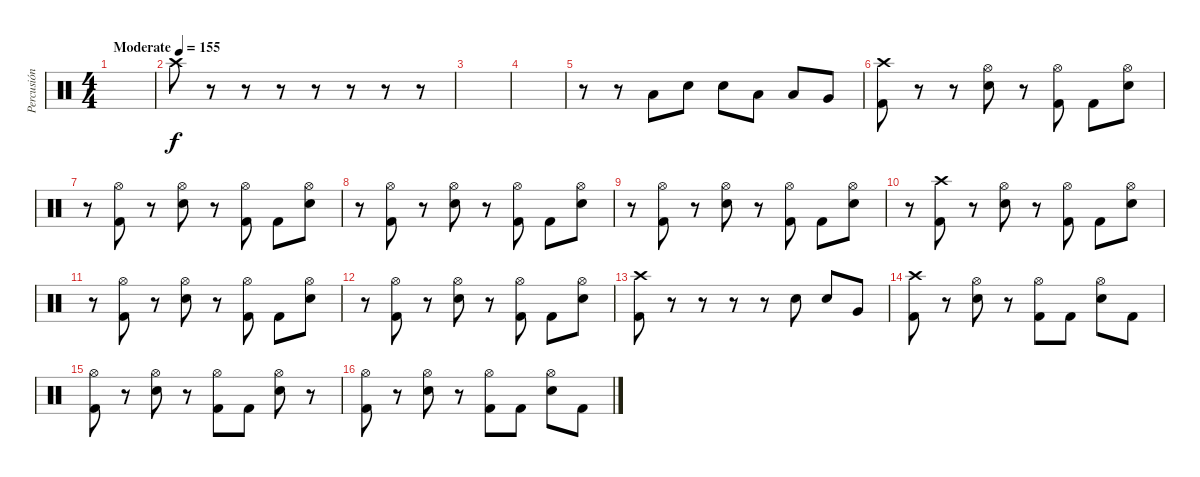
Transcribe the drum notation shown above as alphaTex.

\track ("Percusión" "Percusión") {instrument percussion}
\staff {score}
\articulation defaults
\ts (4 4)
\tempo (155 "Moderate")
\clef neutral
\ks c
|
"Crash high (hit)".8 r.8 r.8 r.8 r.8 r.8 r.8 r.8 |
|
|
r.8 r.8 "Low Tom (hit)".8 "Electric Snare (hit)".8 "Electric Snare (hit)".8 "Low Tom (hit)".8 "Low Tom (hit)".8 "Very Low Tom (hit)".8 |
("Crash high (hit)" "Kick (hit) 2").8 r.8 r.8 ("Hi-Hat (open)" "Electric Snare (hit)").8 r.8 ("Hi-Hat (open)" "Kick (hit) 2").8 "Kick (hit) 2".8 ("Hi-Hat (open)" "Electric Snare (hit)").8 |
r.8 ("Hi-Hat (open)" "Kick (hit) 2").8 r.8 ("Hi-Hat (open)" "Electric Snare (hit)").8 r.8 ("Hi-Hat (open)" "Kick (hit) 2").8 "Kick (hit) 2".8 ("Hi-Hat (open)" "Electric Snare (hit)").8 |
r.8 ("Hi-Hat (open)" "Kick (hit) 2").8 r.8 ("Hi-Hat (open)" "Electric Snare (hit)").8 r.8 ("Hi-Hat (open)" "Kick (hit) 2").8 "Kick (hit) 2".8 ("Hi-Hat (open)" "Electric Snare (hit)").8 |
r.8 ("Hi-Hat (open)" "Kick (hit) 2").8 r.8 ("Hi-Hat (open)" "Electric Snare (hit)").8 r.8 ("Hi-Hat (open)" "Kick (hit) 2").8 "Kick (hit) 2".8 ("Hi-Hat (open)" "Electric Snare (hit)").8 |
r.8 ("Crash high (hit)" "Kick (hit) 2").8 r.8 ("Hi-Hat (open)" "Electric Snare (hit)").8 r.8 ("Hi-Hat (open)" "Kick (hit) 2").8 "Kick (hit) 2".8 ("Hi-Hat (open)" "Electric Snare (hit)").8 |
r.8 ("Hi-Hat (open)" "Kick (hit) 2").8 r.8 ("Hi-Hat (open)" "Electric Snare (hit)").8 r.8 ("Hi-Hat (open)" "Kick (hit) 2").8 "Kick (hit) 2".8 ("Hi-Hat (open)" "Electric Snare (hit)").8 |
r.8 ("Hi-Hat (open)" "Kick (hit) 2").8 r.8 ("Hi-Hat (open)" "Electric Snare (hit)").8 r.8 ("Hi-Hat (open)" "Kick (hit) 2").8 "Kick (hit) 2".8 ("Hi-Hat (open)" "Electric Snare (hit)").8 |
("Crash high (hit)" "Kick (hit) 2").8 r.8 r.8 r.8 r.8 "Electric Snare (hit)".8 "Electric Snare (hit)".8 "Very Low Tom (hit)".8 |
("Crash high (hit)" "Kick (hit) 2").8 r.8 ("Hi-Hat (open)" "Electric Snare (hit)").8 r.8 ("Hi-Hat (open)" "Kick (hit) 2").8 "Kick (hit) 2".8 ("Hi-Hat (open)" "Electric Snare (hit)").8 "Kick (hit) 2".8 |
("Hi-Hat (open)" "Kick (hit) 2").8 r.8 ("Hi-Hat (open)" "Electric Snare (hit)").8 r.8 ("Hi-Hat (open)" "Kick (hit) 2").8 "Kick (hit) 2".8 ("Hi-Hat (open)" "Electric Snare (hit)").8 r.8 |
("Hi-Hat (open)" "Kick (hit) 2").8 r.8 ("Hi-Hat (open)" "Electric Snare (hit)").8 r.8 ("Hi-Hat (open)" "Kick (hit) 2").8 "Kick (hit) 2".8 ("Hi-Hat (open)" "Electric Snare (hit)").8 "Kick (hit) 2".8
